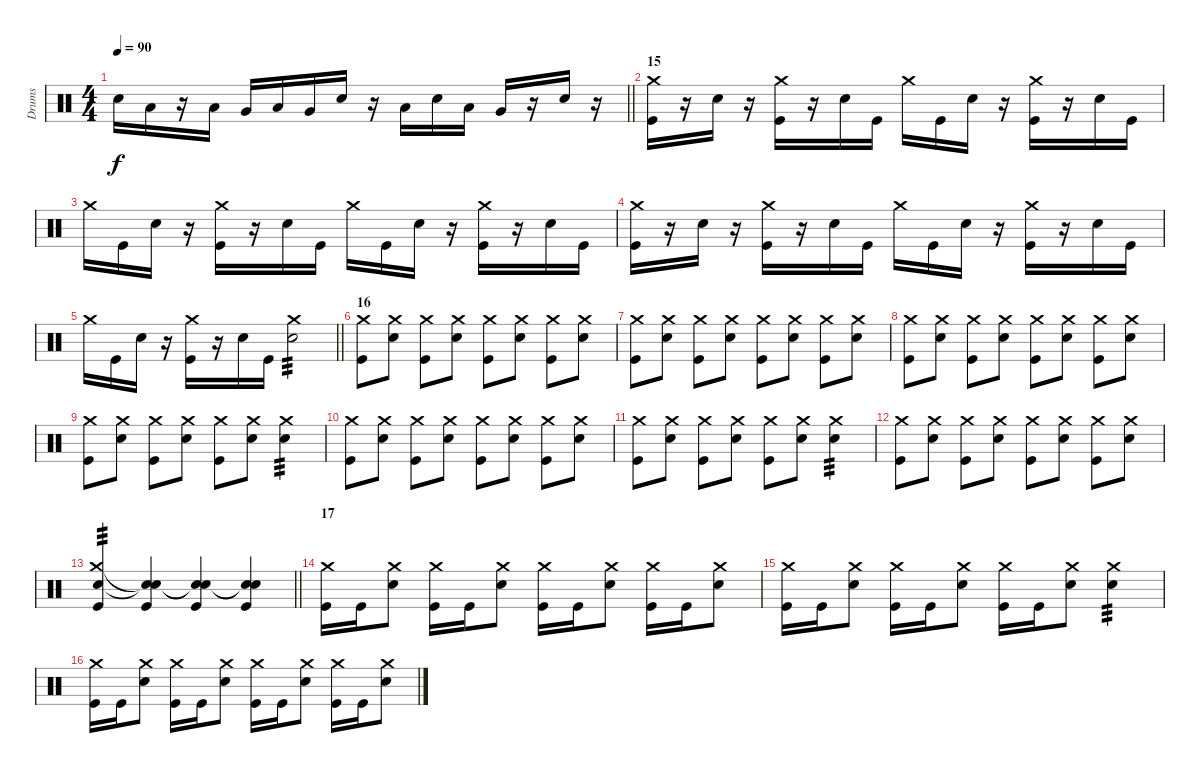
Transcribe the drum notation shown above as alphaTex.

\track ("Drums" "Drums") {instrument percussion}
\staff {score}
\articulation defaults
\ts (4 4)
\tempo 90
\clef neutral
\barLineRight lightlight
\ks c "Electric Snare (hit)".16{dy f} "Low Tom (hit)".16
r.16 "Low Tom (hit)".16 "Very Low Tom (hit)".16 "Low Tom (hit)".16 "Very Low Tom (hit)".16 "Electric Snare (hit)".16 r.16 "Low Tom (hit)".16 "Electric Snare (hit)".16 "Low Tom (hit)".16 "Very Low Tom (hit)".16 r.16 "Electric Snare (hit)".16 r.16 |
\section ("" "15")
("Crash medium (hit)" "Kick (hit)").16 r.16 "Electric Snare (hit)".16 r.16 ("Crash medium (hit)" "Kick (hit)").16 r.16 "Electric Snare (hit)".16 "Kick (hit)".16 "Crash medium (hit)".16 "Kick (hit)".16 "Electric Snare (hit)".16 r.16 ("Crash medium (hit)" "Kick (hit)").16 r.16 "Electric Snare (hit)".16 "Kick (hit)".16 |
"Crash medium (hit)".16 "Kick (hit)".16 "Electric Snare (hit)".16 r.16 ("Crash medium (hit)" "Kick (hit)").16 r.16 "Electric Snare (hit)".16 "Kick (hit)".16 "Crash medium (hit)".16 "Kick (hit)".16 "Electric Snare (hit)".16 r.16 ("Crash medium (hit)" "Kick (hit)").16 r.16 "Electric Snare (hit)".16 "Kick (hit)".16 |
("Crash medium (hit)" "Kick (hit)").16 r.16 "Electric Snare (hit)".16 r.16 ("Crash medium (hit)" "Kick (hit)").16 r.16 "Electric Snare (hit)".16 "Kick (hit)".16 "Crash medium (hit)".16 "Kick (hit)".16 "Electric Snare (hit)".16 r.16 ("Crash medium (hit)" "Kick (hit)").16 r.16 "Electric Snare (hit)".16 "Kick (hit)".16 |
\barLineRight lightlight "Crash medium (hit)".16 "Kick (hit)".16 "Electric Snare (hit)".16
r.16 ("Crash medium (hit)" "Kick (hit)").16 r.16 "Electric Snare (hit)".16 "Kick (hit)".16 ("Crash medium (hit)" "Electric Snare (hit)").2{tp 3} |
\section ("" "16")
("Crash medium (hit)" "Kick (hit)").8 ("Crash medium (hit)" "Electric Snare (hit)").8 ("Crash medium (hit)" "Kick (hit)").8 ("Crash medium (hit)" "Electric Snare (hit)").8 ("Crash medium (hit)" "Kick (hit)").8 ("Crash medium (hit)" "Electric Snare (hit)").8 ("Crash medium (hit)" "Kick (hit)").8 ("Crash medium (hit)" "Electric Snare (hit)").8 |
("Crash medium (hit)" "Kick (hit)").8 ("Crash medium (hit)" "Electric Snare (hit)").8 ("Crash medium (hit)" "Kick (hit)").8 ("Crash medium (hit)" "Electric Snare (hit)").8 ("Crash medium (hit)" "Kick (hit)").8 ("Crash medium (hit)" "Electric Snare (hit)").8 ("Crash medium (hit)" "Kick (hit)").8 ("Crash medium (hit)" "Electric Snare (hit)").8 |
("Crash medium (hit)" "Kick (hit)").8 ("Crash medium (hit)" "Electric Snare (hit)").8 ("Crash medium (hit)" "Kick (hit)").8 ("Crash medium (hit)" "Electric Snare (hit)").8 ("Crash medium (hit)" "Kick (hit)").8 ("Crash medium (hit)" "Electric Snare (hit)").8 ("Crash medium (hit)" "Kick (hit)").8 ("Crash medium (hit)" "Electric Snare (hit)").8 |
("Crash medium (hit)" "Kick (hit)").8 ("Crash medium (hit)" "Electric Snare (hit)").8 ("Crash medium (hit)" "Kick (hit)").8 ("Crash medium (hit)" "Electric Snare (hit)").8 ("Crash medium (hit)" "Kick (hit)").8 ("Crash medium (hit)" "Electric Snare (hit)").8 ("Crash medium (hit)" "Electric Snare (hit)").4{tp 3} |
("Crash medium (hit)" "Kick (hit)").8 ("Crash medium (hit)" "Electric Snare (hit)").8 ("Crash medium (hit)" "Kick (hit)").8 ("Crash medium (hit)" "Electric Snare (hit)").8 ("Crash medium (hit)" "Kick (hit)").8 ("Crash medium (hit)" "Electric Snare (hit)").8 ("Crash medium (hit)" "Kick (hit)").8 ("Crash medium (hit)" "Electric Snare (hit)").8 |
("Crash medium (hit)" "Kick (hit)").8 ("Crash medium (hit)" "Electric Snare (hit)").8 ("Crash medium (hit)" "Kick (hit)").8 ("Crash medium (hit)" "Electric Snare (hit)").8 ("Crash medium (hit)" "Kick (hit)").8 ("Crash medium (hit)" "Electric Snare (hit)").8 ("Crash medium (hit)" "Electric Snare (hit)").4{tp 3} |
("Crash medium (hit)" "Kick (hit)").8 ("Crash medium (hit)" "Electric Snare (hit)").8 ("Crash medium (hit)" "Kick (hit)").8 ("Crash medium (hit)" "Electric Snare (hit)").8 ("Crash medium (hit)" "Kick (hit)").8 ("Crash medium (hit)" "Electric Snare (hit)").8 ("Crash medium (hit)" "Kick (hit)").8 ("Crash medium (hit)" "Electric Snare (hit)").8 |
\barLineRight lightlight
("Crash medium (hit)" "Electric Snare (hit)" "Kick (hit)").4{tp 3} ("Snare (hit)"{t} "Snare (hit)"{t} "Kick (hit)").4 ("Snare (hit)"{t} "Snare (hit)"{t} "Kick (hit)").4 ("Snare (hit)"{t} "Snare (hit)"{t} "Kick (hit)").4 |
\section ("" "17")
("Crash medium (hit)" "Kick (hit)").16 "Kick (hit)".16 ("Crash medium (hit)" "Electric Snare (hit)").8 ("Crash medium (hit)" "Kick (hit)").16 "Kick (hit)".16 ("Crash medium (hit)" "Electric Snare (hit)").8 ("Crash medium (hit)" "Kick (hit)").16 "Kick (hit)".16 ("Crash medium (hit)" "Electric Snare (hit)").8 ("Crash medium (hit)" "Kick (hit)").16 "Kick (hit)".16 ("Crash medium (hit)" "Electric Snare (hit)").8 |
("Crash medium (hit)" "Kick (hit)").16 "Kick (hit)".16 ("Crash medium (hit)" "Electric Snare (hit)").8 ("Crash medium (hit)" "Kick (hit)").16 "Kick (hit)".16 ("Crash medium (hit)" "Electric Snare (hit)").8 ("Crash medium (hit)" "Kick (hit)").16 "Kick (hit)".16 ("Crash medium (hit)" "Electric Snare (hit)").8 ("Crash medium (hit)" "Electric Snare (hit)").4{tp 3} |
("Crash medium (hit)" "Kick (hit)").16 "Kick (hit)".16 ("Crash medium (hit)" "Electric Snare (hit)").8 ("Crash medium (hit)" "Kick (hit)").16 "Kick (hit)".16 ("Crash medium (hit)" "Electric Snare (hit)").8 ("Crash medium (hit)" "Kick (hit)").16 "Kick (hit)".16 ("Crash medium (hit)" "Electric Snare (hit)").8 ("Crash medium (hit)" "Kick (hit)").16 "Kick (hit)".16 ("Crash medium (hit)" "Electric Snare (hit)").8
